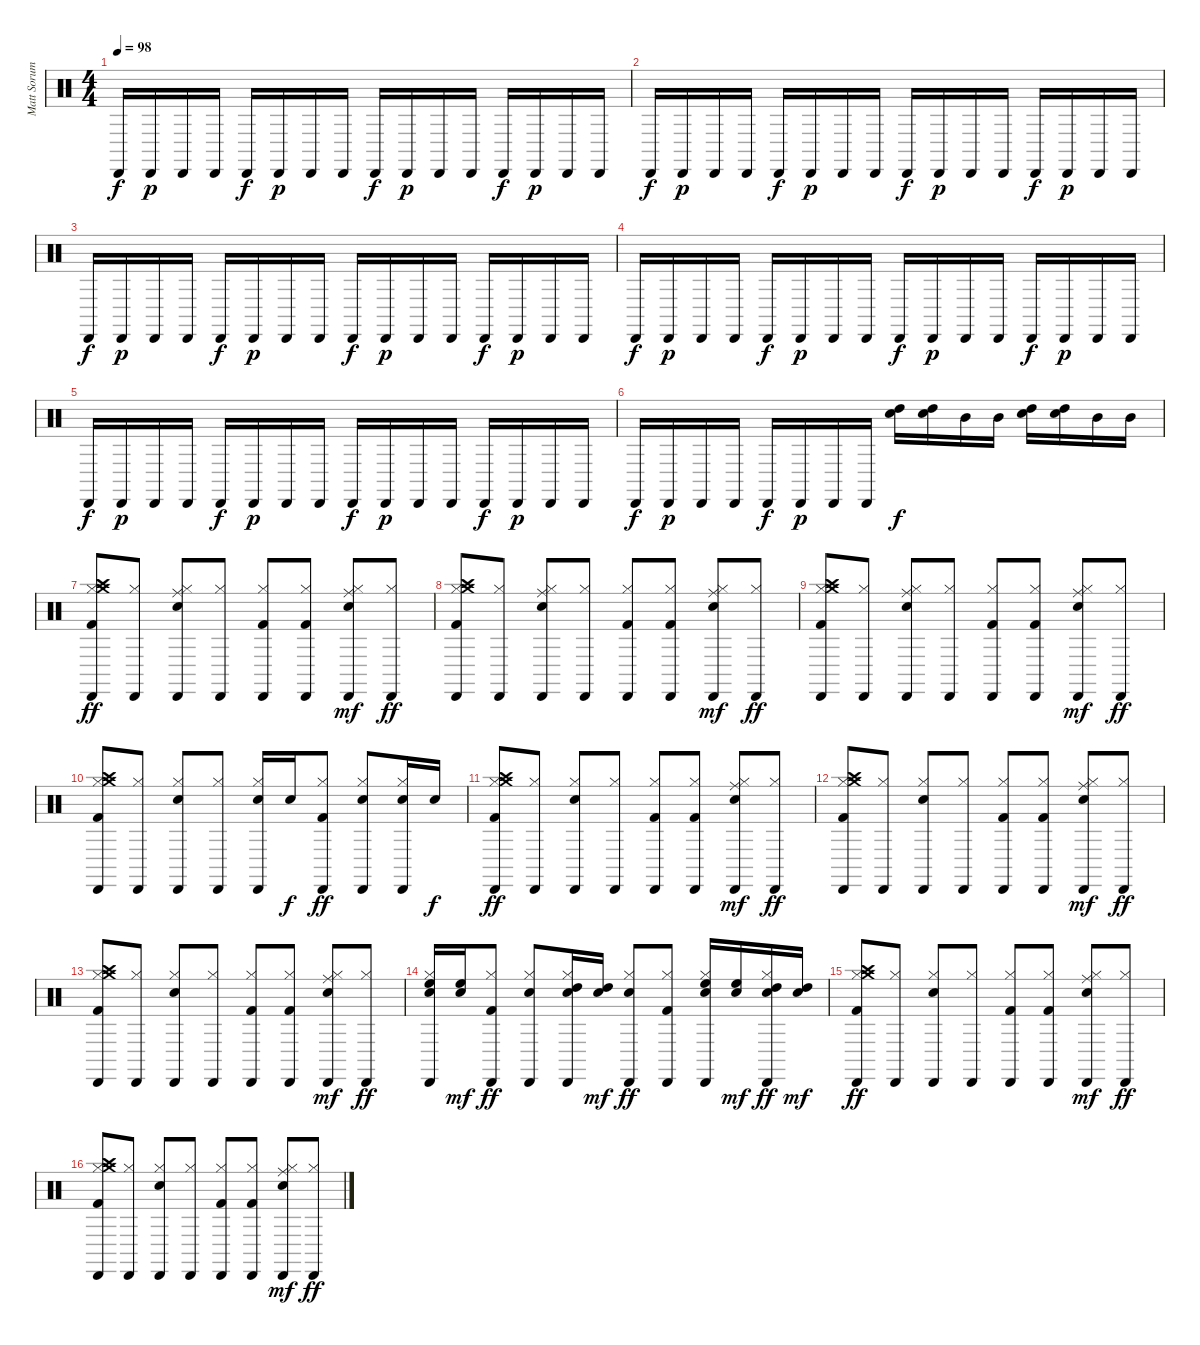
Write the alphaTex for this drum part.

\track ("Matt Sorum" "Matt Sorum") {instrument percussion}
\staff {score}
\articulation defaults
\ts (4 4)
\tempo 98
\clef neutral
\ks c "Cabasa (hit)".16{dy f volume 6} "Cabasa (hit)".16{dy p} "Cabasa (hit)".16 "Cabasa (hit)".16 "Cabasa (hit)".16{dy f} "Cabasa (hit)".16{dy p} "Cabasa (hit)".16 "Cabasa (hit)".16 "Cabasa (hit)".16{dy f} "Cabasa (hit)".16{dy p} "Cabasa (hit)".16 "Cabasa (hit)".16 "Cabasa (hit)".16{dy f} "Cabasa (hit)".16{dy p} "Cabasa (hit)".16 "Cabasa (hit)".16
|
"Cabasa (hit)".16{dy f volume 6} "Cabasa (hit)".16{dy p} "Cabasa (hit)".16 "Cabasa (hit)".16 "Cabasa (hit)".16{dy f} "Cabasa (hit)".16{dy p} "Cabasa (hit)".16 "Cabasa (hit)".16 "Cabasa (hit)".16{dy f} "Cabasa (hit)".16{dy p} "Cabasa (hit)".16 "Cabasa (hit)".16 "Cabasa (hit)".16{dy f} "Cabasa (hit)".16{dy p} "Cabasa (hit)".16 "Cabasa (hit)".16 |
"Cabasa (hit)".16{dy f volume 6} "Cabasa (hit)".16{dy p} "Cabasa (hit)".16 "Cabasa (hit)".16 "Cabasa (hit)".16{dy f} "Cabasa (hit)".16{dy p} "Cabasa (hit)".16 "Cabasa (hit)".16 "Cabasa (hit)".16{dy f} "Cabasa (hit)".16{dy p} "Cabasa (hit)".16 "Cabasa (hit)".16 "Cabasa (hit)".16{dy f} "Cabasa (hit)".16{dy p} "Cabasa (hit)".16 "Cabasa (hit)".16 |
"Cabasa (hit)".16{dy f volume 6} "Cabasa (hit)".16{dy p} "Cabasa (hit)".16 "Cabasa (hit)".16 "Cabasa (hit)".16{dy f} "Cabasa (hit)".16{dy p} "Cabasa (hit)".16 "Cabasa (hit)".16 "Cabasa (hit)".16{dy f} "Cabasa (hit)".16{dy p} "Cabasa (hit)".16 "Cabasa (hit)".16 "Cabasa (hit)".16{dy f} "Cabasa (hit)".16{dy p} "Cabasa (hit)".16 "Cabasa (hit)".16 |
"Cabasa (hit)".16{dy f volume 6} "Cabasa (hit)".16{dy p} "Cabasa (hit)".16 "Cabasa (hit)".16 "Cabasa (hit)".16{dy f} "Cabasa (hit)".16{dy p} "Cabasa (hit)".16 "Cabasa (hit)".16 "Cabasa (hit)".16{dy f} "Cabasa (hit)".16{dy p} "Cabasa (hit)".16 "Cabasa (hit)".16 "Cabasa (hit)".16{dy f} "Cabasa (hit)".16{dy p} "Cabasa (hit)".16 "Cabasa (hit)".16 |
"Cabasa (hit)".16{dy f} "Cabasa (hit)".16{dy p} "Cabasa (hit)".16 "Cabasa (hit)".16 "Cabasa (hit)".16{dy f} "Cabasa (hit)".16{dy p} "Cabasa (hit)".16 "Cabasa (hit)".16 ("High Tom (hit)" "Snare (hit) 2").16{dy f volume 16} ("High Tom (hit)" "Snare (hit) 2").16 "Mid Tom (hit)".16 "Mid Tom (hit)".16 ("High Tom (hit)" "Snare (hit) 2").16 ("High Tom (hit)" "Snare (hit) 2").16 "Mid Tom (hit)".16 "Mid Tom (hit)".16 |
("Kick (hit) 2" "Hi-Hat (closed)" "Cabasa (hit)" "Crash medium (hit)" "Crash high (hit)").8{dy ff volume 16} ("Hi-Hat (closed)" "Cabasa (hit)").8 ("Snare (hit) 2" "Hi-Hat (closed)" "Cabasa (hit)" "Ride (middle)").8 ("Hi-Hat (closed)" "Cabasa (hit)").8 ("Kick (hit) 2" "Hi-Hat (closed)" "Cabasa (hit)").8 ("Kick (hit) 2" "Hi-Hat (closed)" "Cabasa (hit)").8 ("Snare (hit) 2" "Hi-Hat (closed)" "Cabasa (hit)" "Ride (middle)").8{dy mf} ("Hi-Hat (closed)" "Cabasa (hit)").8{dy ff} |
("Kick (hit) 2" "Hi-Hat (closed)" "Cabasa (hit)" "Crash medium (hit)" "Crash high (hit)").8 ("Hi-Hat (closed)" "Cabasa (hit)").8 ("Snare (hit) 2" "Hi-Hat (closed)" "Cabasa (hit)" "Ride (middle)").8 ("Hi-Hat (closed)" "Cabasa (hit)").8 ("Kick (hit) 2" "Hi-Hat (closed)" "Cabasa (hit)").8 ("Kick (hit) 2" "Hi-Hat (closed)" "Cabasa (hit)").8 ("Snare (hit) 2" "Hi-Hat (closed)" "Cabasa (hit)" "Ride (middle)").8{dy mf} ("Hi-Hat (closed)" "Cabasa (hit)").8{dy ff} |
("Kick (hit) 2" "Hi-Hat (closed)" "Cabasa (hit)" "Crash medium (hit)" "Crash high (hit)").8 ("Hi-Hat (closed)" "Cabasa (hit)").8 ("Snare (hit) 2" "Hi-Hat (closed)" "Cabasa (hit)" "Ride (middle)").8 ("Hi-Hat (closed)" "Cabasa (hit)").8 ("Kick (hit) 2" "Hi-Hat (closed)" "Cabasa (hit)").8 ("Kick (hit) 2" "Hi-Hat (closed)" "Cabasa (hit)").8 ("Snare (hit) 2" "Hi-Hat (closed)" "Cabasa (hit)" "Ride (middle)").8{dy mf} ("Hi-Hat (closed)" "Cabasa (hit)").8{dy ff} |
("Kick (hit) 2" "Hi-Hat (closed)" "Cabasa (hit)" "Crash medium (hit)" "Crash high (hit)").8{volume 16} ("Hi-Hat (closed)" "Cabasa (hit)").8 ("Snare (hit) 2" "Hi-Hat (closed)" "Cabasa (hit)").8 ("Hi-Hat (closed)" "Cabasa (hit)").8 ("Snare (hit) 2" "Hi-Hat (closed)" "Cabasa (hit)").16 "Snare (hit) 2".16{dy f} ("Kick (hit) 2" "Hi-Hat (closed)" "Cabasa (hit)").8{dy ff} ("Snare (hit) 2" "Hi-Hat (closed)" "Cabasa (hit)").8 ("Snare (hit) 2" "Hi-Hat (closed)" "Cabasa (hit)").16 "Snare (hit) 2".16{dy f} |
("Kick (hit) 2" "Hi-Hat (closed)" "Cabasa (hit)" "Crash medium (hit)" "Crash high (hit)").8{dy ff volume 16} ("Hi-Hat (closed)" "Cabasa (hit)").8 ("Snare (hit) 2" "Hi-Hat (closed)" "Cabasa (hit)").8 ("Hi-Hat (closed)" "Cabasa (hit)").8 ("Kick (hit) 2" "Hi-Hat (closed)" "Cabasa (hit)").8 ("Kick (hit) 2" "Hi-Hat (closed)" "Cabasa (hit)").8 ("Snare (hit) 2" "Hi-Hat (closed)" "Cabasa (hit)" "Ride (middle)").8{dy mf} ("Hi-Hat (closed)" "Cabasa (hit)").8{dy ff} |
("Kick (hit) 2" "Hi-Hat (closed)" "Cabasa (hit)" "Crash medium (hit)" "Crash high (hit)").8 ("Hi-Hat (closed)" "Cabasa (hit)").8 ("Snare (hit) 2" "Hi-Hat (closed)" "Cabasa (hit)").8 ("Hi-Hat (closed)" "Cabasa (hit)").8 ("Kick (hit) 2" "Hi-Hat (closed)" "Cabasa (hit)").8 ("Kick (hit) 2" "Hi-Hat (closed)" "Cabasa (hit)").8 ("Snare (hit) 2" "Hi-Hat (closed)" "Cabasa (hit)" "Ride (middle)").8{dy mf} ("Hi-Hat (closed)" "Cabasa (hit)").8{dy ff} |
("Kick (hit) 2" "Hi-Hat (closed)" "Cabasa (hit)" "Crash medium (hit)" "Crash high (hit)").8 ("Hi-Hat (closed)" "Cabasa (hit)").8 ("Snare (hit) 2" "Hi-Hat (closed)" "Cabasa (hit)").8 ("Hi-Hat (closed)" "Cabasa (hit)").8 ("Kick (hit) 2" "Hi-Hat (closed)" "Cabasa (hit)").8 ("Kick (hit) 2" "Hi-Hat (closed)" "Cabasa (hit)").8 ("Snare (hit) 2" "Hi-Hat (closed)" "Cabasa (hit)" "Ride (middle)").8{dy mf} ("Hi-Hat (closed)" "Cabasa (hit)").8{dy ff} |
("Snare (hit) 2" "High Floor Tom (hit)" "Hi-Hat (closed)" "Cabasa (hit)").16 ("Snare (hit) 2" "High Floor Tom (hit)").16{dy mf} ("Kick (hit) 2" "Hi-Hat (closed)" "Cabasa (hit)").8{dy ff} ("Snare (hit) 2" "Hi-Hat (closed)" "Cabasa (hit)").8 ("Snare (hit) 2" "High Tom (hit)" "Hi-Hat (closed)" "Cabasa (hit)").16 ("Snare (hit) 2" "High Tom (hit)").16{dy mf} ("Snare (hit) 2" "Hi-Hat (closed)" "Cabasa (hit)").8{dy ff} ("Kick (hit) 2" "Hi-Hat (closed)" "Cabasa (hit)").8 ("Snare (hit) 2" "High Floor Tom (hit)" "Hi-Hat (closed)" "Cabasa (hit)").16 ("Snare (hit) 2" "High Floor Tom (hit)").16{dy mf} ("Snare (hit) 2" "High Tom (hit)" "Hi-Hat (closed)" "Cabasa (hit)").16{dy ff} ("Snare (hit) 2" "High Tom (hit)").16{dy mf} |
("Kick (hit) 2" "Hi-Hat (closed)" "Cabasa (hit)" "Crash medium (hit)" "Crash high (hit)").8{dy ff volume 16} ("Hi-Hat (closed)" "Cabasa (hit)").8 ("Snare (hit) 2" "Hi-Hat (closed)" "Cabasa (hit)").8 ("Hi-Hat (closed)" "Cabasa (hit)").8 ("Kick (hit) 2" "Hi-Hat (closed)" "Cabasa (hit)").8 ("Kick (hit) 2" "Hi-Hat (closed)" "Cabasa (hit)").8 ("Snare (hit) 2" "Hi-Hat (closed)" "Cabasa (hit)" "Ride (middle)").8{dy mf} ("Hi-Hat (closed)" "Cabasa (hit)").8{dy ff} |
("Kick (hit) 2" "Hi-Hat (closed)" "Cabasa (hit)" "Crash medium (hit)" "Crash high (hit)").8 ("Hi-Hat (closed)" "Cabasa (hit)").8 ("Snare (hit) 2" "Hi-Hat (closed)" "Cabasa (hit)").8 ("Hi-Hat (closed)" "Cabasa (hit)").8 ("Kick (hit) 2" "Hi-Hat (closed)" "Cabasa (hit)").8 ("Kick (hit) 2" "Hi-Hat (closed)" "Cabasa (hit)").8 ("Snare (hit) 2" "Hi-Hat (closed)" "Cabasa (hit)" "Ride (middle)").8{dy mf} ("Hi-Hat (closed)" "Cabasa (hit)").8{dy ff}
